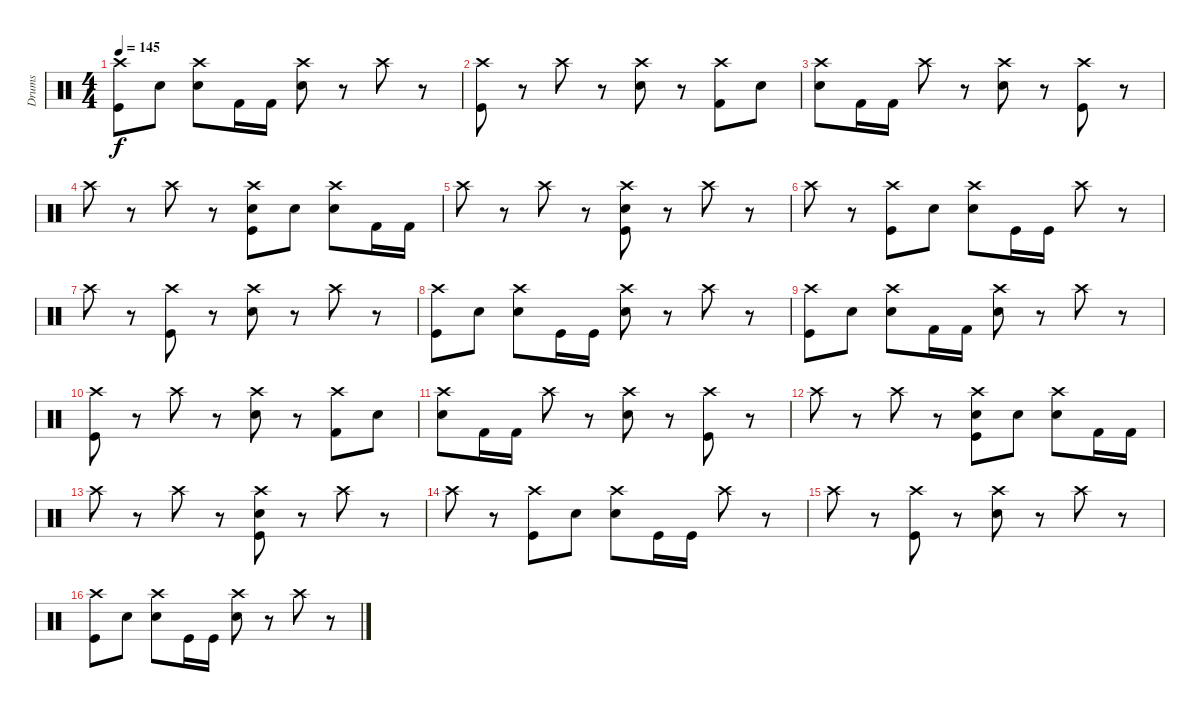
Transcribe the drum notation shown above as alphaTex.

\track ("Drums" "Drums") {instrument percussion}
\staff {score}
\articulation defaults
\ts (4 4)
\tempo 145
\clef neutral
\ks c
("Crash high (hit)" "Kick (hit)").8{dy f} "Electric Snare (hit)".8 ("Crash high (hit)" "Electric Snare (hit)").8 "Kick (hit) 2".16 "Kick (hit) 2".16 ("Crash high (hit)" "Electric Snare (hit)").8 r.8 "Crash high (hit)".8 r.8 |
("Crash high (hit)" "Kick (hit)").8 r.8 "Crash high (hit)".8 r.8 ("Crash high (hit)" "Electric Snare (hit)").8 r.8 ("Crash high (hit)" "Kick (hit) 2").8 "Electric Snare (hit)".8 |
("Crash high (hit)" "Electric Snare (hit)").8 "Kick (hit) 2".16 "Kick (hit) 2".16 "Crash high (hit)".8 r.8 ("Crash high (hit)" "Electric Snare (hit)").8 r.8 ("Crash high (hit)" "Kick (hit)").8 r.8 |
"Crash high (hit)".8 r.8 "Crash high (hit)".8 r.8 ("Crash high (hit)" "Electric Snare (hit)" "Kick (hit)").8 "Electric Snare (hit)".8 ("Crash high (hit)" "Electric Snare (hit)").8 "Kick (hit) 2".16 "Kick (hit) 2".16 |
"Crash high (hit)".8 r.8 "Crash high (hit)".8 r.8 ("Crash high (hit)" "Electric Snare (hit)" "Kick (hit)").8 r.8 "Crash high (hit)".8 r.8 |
"Crash high (hit)".8 r.8 ("Crash high (hit)" "Kick (hit)").8 "Electric Snare (hit)".8 ("Crash high (hit)" "Electric Snare (hit)").8 "Kick (hit)".16 "Kick (hit)".16 "Crash high (hit)".8 r.8 |
"Crash high (hit)".8 r.8 ("Crash high (hit)" "Kick (hit)").8 r.8 ("Crash high (hit)" "Electric Snare (hit)").8 r.8 "Crash high (hit)".8 r.8 |
("Crash high (hit)" "Kick (hit)").8 "Electric Snare (hit)".8 ("Crash high (hit)" "Electric Snare (hit)").8 "Kick (hit)".16 "Kick (hit)".16 ("Crash high (hit)" "Electric Snare (hit)").8 r.8 "Crash high (hit)".8 r.8 |
("Crash high (hit)" "Kick (hit)").8 "Electric Snare (hit)".8 ("Crash high (hit)" "Electric Snare (hit)").8 "Kick (hit) 2".16 "Kick (hit) 2".16 ("Crash high (hit)" "Electric Snare (hit)").8 r.8 "Crash high (hit)".8 r.8 |
("Crash high (hit)" "Kick (hit)").8 r.8 "Crash high (hit)".8 r.8 ("Crash high (hit)" "Electric Snare (hit)").8 r.8 ("Crash high (hit)" "Kick (hit) 2").8 "Electric Snare (hit)".8 |
("Crash high (hit)" "Electric Snare (hit)").8 "Kick (hit) 2".16 "Kick (hit) 2".16 "Crash high (hit)".8 r.8 ("Crash high (hit)" "Electric Snare (hit)").8 r.8 ("Crash high (hit)" "Kick (hit)").8 r.8 |
"Crash high (hit)".8 r.8 "Crash high (hit)".8 r.8 ("Crash high (hit)" "Electric Snare (hit)" "Kick (hit)").8 "Electric Snare (hit)".8 ("Crash high (hit)" "Electric Snare (hit)").8 "Kick (hit) 2".16 "Kick (hit) 2".16 |
"Crash high (hit)".8 r.8 "Crash high (hit)".8 r.8 ("Crash high (hit)" "Electric Snare (hit)" "Kick (hit)").8 r.8 "Crash high (hit)".8 r.8 |
"Crash high (hit)".8 r.8 ("Crash high (hit)" "Kick (hit)").8 "Electric Snare (hit)".8 ("Crash high (hit)" "Electric Snare (hit)").8 "Kick (hit)".16 "Kick (hit)".16 "Crash high (hit)".8 r.8 |
"Crash high (hit)".8 r.8 ("Crash high (hit)" "Kick (hit)").8 r.8 ("Crash high (hit)" "Electric Snare (hit)").8 r.8 "Crash high (hit)".8 r.8 |
("Crash high (hit)" "Kick (hit)").8 "Electric Snare (hit)".8 ("Crash high (hit)" "Electric Snare (hit)").8 "Kick (hit)".16 "Kick (hit)".16 ("Crash high (hit)" "Electric Snare (hit)").8 r.8 "Crash high (hit)".8 r.8
